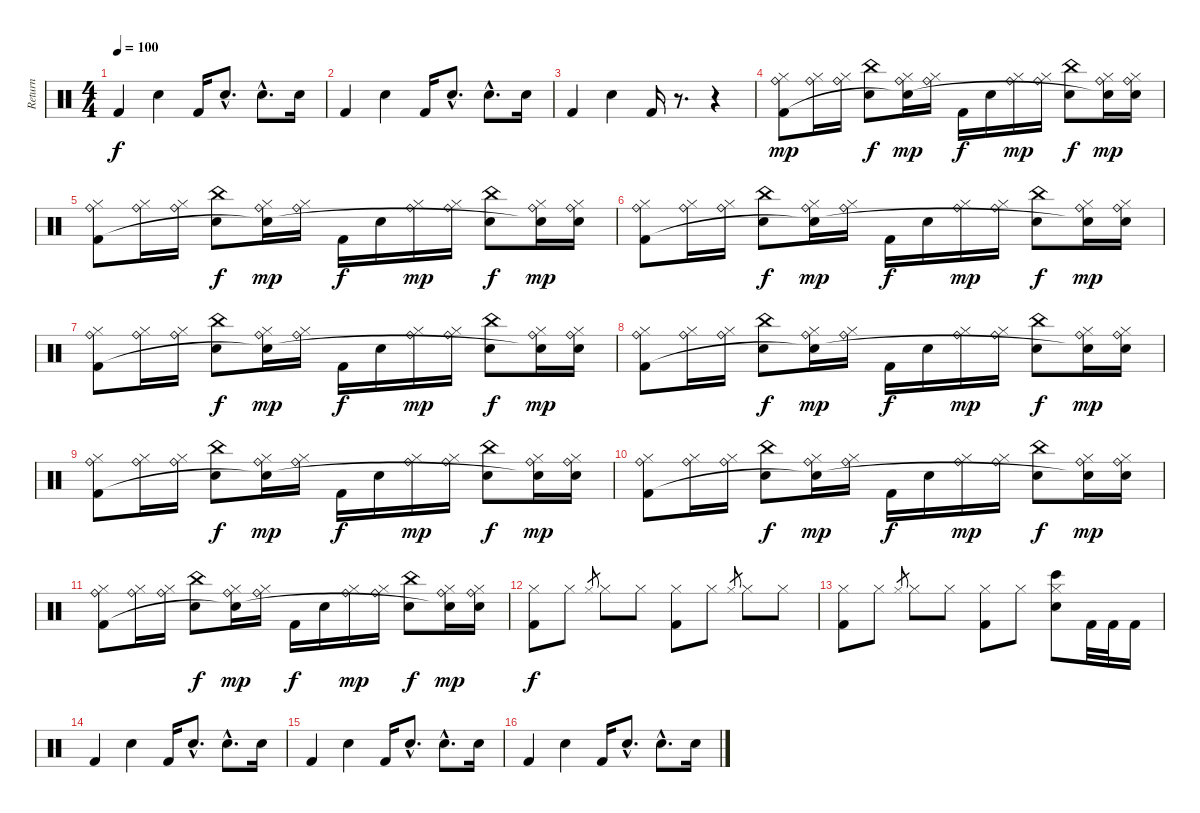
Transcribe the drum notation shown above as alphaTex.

\track ("    Return" "    Return") {instrument percussion}
\staff {score}
\articulation defaults
\ts (4 4)
\tempo 100
\clef neutral
\ks c "Kick (hit) 2".4{dy f} "Electric Snare (hit)".4 "Kick (hit) 2".16 "Snare (hit) 2"{hac}.8{d} "Electric Snare (hit)"{hac}.8{d} "Snare (hit) 2".16
|
"Kick (hit) 2".4 "Electric Snare (hit)".4 "Kick (hit) 2".16 "Snare (hit) 2"{hac}.8{d} "Electric Snare (hit)"{hac}.8{d} "Snare (hit) 2".16 |
"Kick (hit) 2".4 "Electric Snare (hit)".4 "Kick (hit) 2".16 r.8{d} r.4 |
("Hi-Hat (closed)" "Ride (bell)" "Kick (hit) 2").8{dy mp} ("Hi-Hat (closed)" "Ride (bell)").16 ("Hi-Hat (closed)" "Ride (bell)").16 ("Electric Snare (hit)" "China (hit)").8{dy f} ("Hi-Hat (closed)" "Ride (bell)" "Snare (hit)"{t}).16{dy mp} ("Hi-Hat (closed)" "Ride (bell)").16 "Kick (hit) 2".16{dy f} "Snare (hit) 2".16 ("Hi-Hat (closed)" "Ride (bell)").16{dy mp} ("Hi-Hat (closed)" "Ride (bell)").16 ("Electric Snare (hit)" "China (hit)").8{dy f} ("Hi-Hat (closed)" "Ride (bell)" "Snare (hit)"{t}).16{dy mp} ("Hi-Hat (closed)" "Ride (bell)" "Snare (hit) 2").16 |
("Hi-Hat (closed)" "Ride (bell)" "Kick (hit) 2").8 ("Hi-Hat (closed)" "Ride (bell)").16 ("Hi-Hat (closed)" "Ride (bell)").16 ("Electric Snare (hit)" "China (hit)").8{dy f} ("Hi-Hat (closed)" "Ride (bell)" "Snare (hit)"{t}).16{dy mp} ("Hi-Hat (closed)" "Ride (bell)").16 "Kick (hit) 2".16{dy f} "Snare (hit) 2".16 ("Hi-Hat (closed)" "Ride (bell)").16{dy mp} ("Hi-Hat (closed)" "Ride (bell)").16 ("Electric Snare (hit)" "China (hit)").8{dy f} ("Hi-Hat (closed)" "Ride (bell)" "Snare (hit)"{t}).16{dy mp} ("Hi-Hat (closed)" "Ride (bell)" "Snare (hit) 2").16 |
("Hi-Hat (closed)" "Ride (bell)" "Kick (hit) 2").8 ("Hi-Hat (closed)" "Ride (bell)").16 ("Hi-Hat (closed)" "Ride (bell)").16 ("Electric Snare (hit)" "China (hit)").8{dy f} ("Hi-Hat (closed)" "Ride (bell)" "Snare (hit)"{t}).16{dy mp} ("Hi-Hat (closed)" "Ride (bell)").16 "Kick (hit) 2".16{dy f} "Snare (hit) 2".16 ("Hi-Hat (closed)" "Ride (bell)").16{dy mp} ("Hi-Hat (closed)" "Ride (bell)").16 ("Electric Snare (hit)" "China (hit)").8{dy f} ("Hi-Hat (closed)" "Ride (bell)" "Snare (hit)"{t}).16{dy mp} ("Hi-Hat (closed)" "Ride (bell)" "Snare (hit) 2").16 |
("Hi-Hat (closed)" "Ride (bell)" "Kick (hit) 2").8 ("Hi-Hat (closed)" "Ride (bell)").16 ("Hi-Hat (closed)" "Ride (bell)").16 ("Electric Snare (hit)" "China (hit)").8{dy f} ("Hi-Hat (closed)" "Ride (bell)" "Snare (hit)"{t}).16{dy mp} ("Hi-Hat (closed)" "Ride (bell)").16 "Kick (hit) 2".16{dy f} "Snare (hit) 2".16 ("Hi-Hat (closed)" "Ride (bell)").16{dy mp} ("Hi-Hat (closed)" "Ride (bell)").16 ("Electric Snare (hit)" "China (hit)").8{dy f} ("Hi-Hat (closed)" "Ride (bell)" "Snare (hit)"{t}).16{dy mp} ("Hi-Hat (closed)" "Ride (bell)" "Snare (hit) 2").16 |
("Hi-Hat (closed)" "Ride (bell)" "Kick (hit) 2").8 ("Hi-Hat (closed)" "Ride (bell)").16 ("Hi-Hat (closed)" "Ride (bell)").16 ("Electric Snare (hit)" "China (hit)").8{dy f} ("Hi-Hat (closed)" "Ride (bell)" "Snare (hit)"{t}).16{dy mp} ("Hi-Hat (closed)" "Ride (bell)").16 "Kick (hit) 2".16{dy f} "Snare (hit) 2".16 ("Hi-Hat (closed)" "Ride (bell)").16{dy mp} ("Hi-Hat (closed)" "Ride (bell)").16 ("Electric Snare (hit)" "China (hit)").8{dy f} ("Hi-Hat (closed)" "Ride (bell)" "Snare (hit)"{t}).16{dy mp} ("Hi-Hat (closed)" "Ride (bell)" "Snare (hit) 2").16 |
("Hi-Hat (closed)" "Ride (bell)" "Kick (hit) 2").8 ("Hi-Hat (closed)" "Ride (bell)").16 ("Hi-Hat (closed)" "Ride (bell)").16 ("Electric Snare (hit)" "China (hit)").8{dy f} ("Hi-Hat (closed)" "Ride (bell)" "Snare (hit)"{t}).16{dy mp} ("Hi-Hat (closed)" "Ride (bell)").16 "Kick (hit) 2".16{dy f} "Snare (hit) 2".16 ("Hi-Hat (closed)" "Ride (bell)").16{dy mp} ("Hi-Hat (closed)" "Ride (bell)").16 ("Electric Snare (hit)" "China (hit)").8{dy f} ("Hi-Hat (closed)" "Ride (bell)" "Snare (hit)"{t}).16{dy mp} ("Hi-Hat (closed)" "Ride (bell)" "Snare (hit) 2").16 |
("Hi-Hat (closed)" "Ride (bell)" "Kick (hit) 2").8 ("Hi-Hat (closed)" "Ride (bell)").16 ("Hi-Hat (closed)" "Ride (bell)").16 ("Electric Snare (hit)" "China (hit)").8{dy f} ("Hi-Hat (closed)" "Ride (bell)" "Snare (hit)"{t}).16{dy mp} ("Hi-Hat (closed)" "Ride (bell)").16 "Kick (hit) 2".16{dy f} "Snare (hit) 2".16 ("Hi-Hat (closed)" "Ride (bell)").16{dy mp} ("Hi-Hat (closed)" "Ride (bell)").16 ("Electric Snare (hit)" "China (hit)").8{dy f} ("Hi-Hat (closed)" "Ride (bell)" "Snare (hit)"{t}).16{dy mp} ("Hi-Hat (closed)" "Ride (bell)" "Snare (hit) 2").16 |
("Hi-Hat (closed)" "Ride (bell)" "Kick (hit) 2").8 ("Hi-Hat (closed)" "Ride (bell)").16 ("Hi-Hat (closed)" "Ride (bell)").16 ("Electric Snare (hit)" "China (hit)").8{dy f} ("Hi-Hat (closed)" "Ride (bell)" "Snare (hit)"{t}).16{dy mp} ("Hi-Hat (closed)" "Ride (bell)").16 "Kick (hit) 2".16{dy f} "Snare (hit) 2".16 ("Hi-Hat (closed)" "Ride (bell)").16{dy mp} ("Hi-Hat (closed)" "Ride (bell)").16 ("Electric Snare (hit)" "China (hit)").8{dy f} ("Hi-Hat (closed)" "Ride (bell)" "Snare (hit)"{t}).16{dy mp} ("Hi-Hat (closed)" "Ride (bell)" "Snare (hit) 2").16 |
("Hi-Hat (closed)" "Kick (hit) 2").8{dy f} "Hi-Hat (closed)".8 "Hi-Hat (closed)".8{gr} "Hi-Hat (closed)".8 "Hi-Hat (closed)".8 ("Hi-Hat (closed)" "Kick (hit) 2").8 "Hi-Hat (closed)".8 "Hi-Hat (closed)".8{gr} "Hi-Hat (closed)".8 "Hi-Hat (closed)".8 |
("Hi-Hat (closed)" "Kick (hit) 2").8 "Hi-Hat (closed)".8 "Hi-Hat (closed)".8{gr} "Hi-Hat (closed)".8 "Hi-Hat (closed)".8 ("Hi-Hat (closed)" "Kick (hit) 2").8 "Hi-Hat (closed)".8 ("Hi-Hat (closed)" "Bongo High (hit)" "Snare (hit) 2").8 "Kick (hit) 2".32 "Kick (hit) 2".32 "Kick (hit) 2".16 |
"Kick (hit) 2".4 "Electric Snare (hit)".4 "Kick (hit) 2".16 "Snare (hit) 2"{hac}.8{d} "Electric Snare (hit)"{hac}.8{d} "Snare (hit) 2".16 |
"Kick (hit) 2".4 "Electric Snare (hit)".4 "Kick (hit) 2".16 "Snare (hit) 2"{hac}.8{d} "Electric Snare (hit)"{hac}.8{d} "Snare (hit) 2".16 |
"Kick (hit) 2".4 "Electric Snare (hit)".4 "Kick (hit) 2".16 "Snare (hit) 2"{hac}.8{d} "Electric Snare (hit)"{hac}.8{d} "Snare (hit) 2".16
